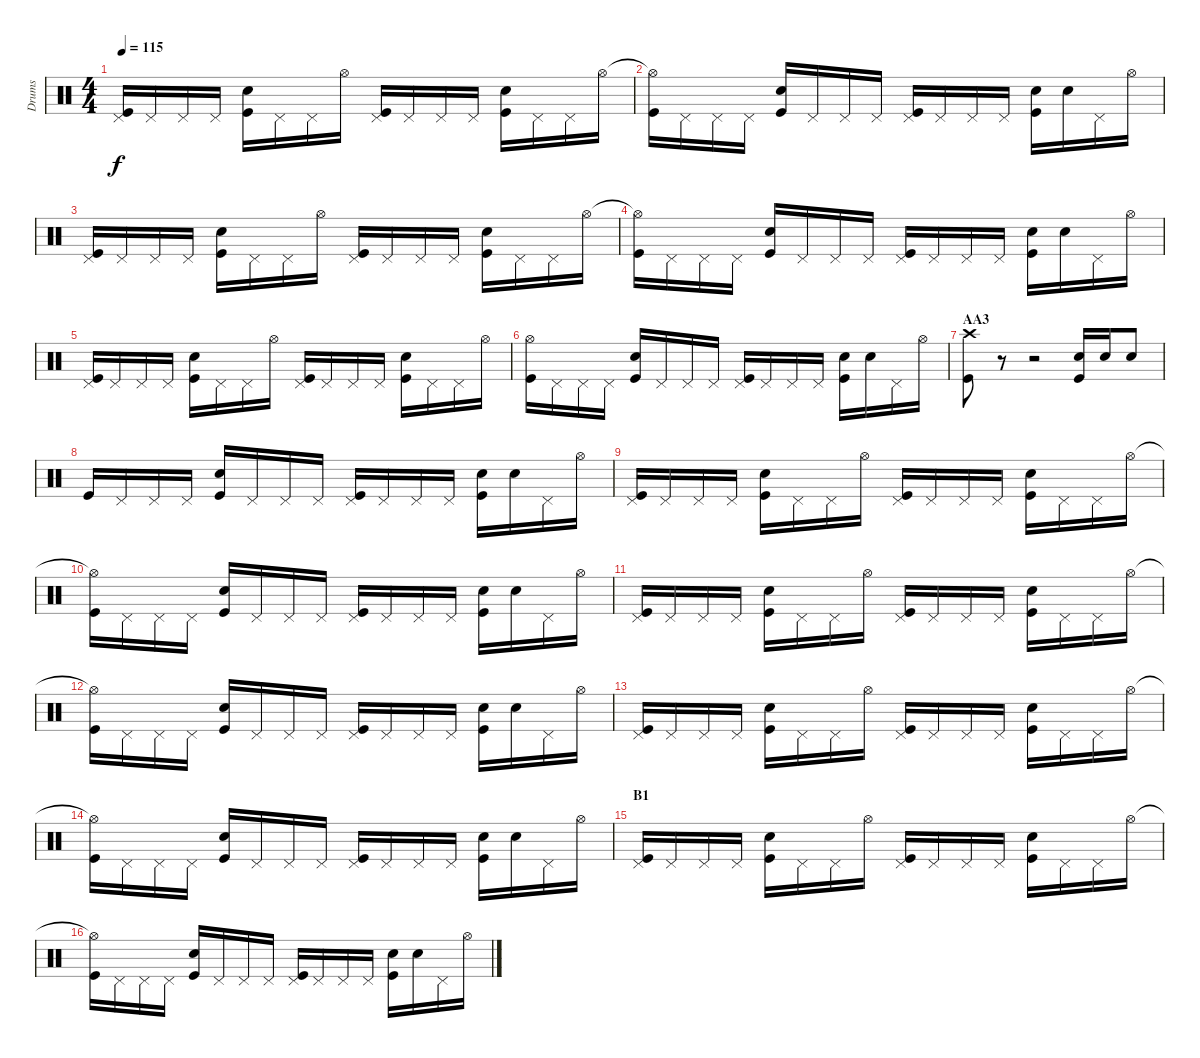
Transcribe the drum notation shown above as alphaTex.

\track ("Drums" "Drums") {instrument percussion}
\staff {score}
\articulation defaults
\ts (4 4)
\tempo 115
\clef neutral
\ks c
("Pedal Hi-Hat (hit)" "Kick (hit)").16{dy f} "Pedal Hi-Hat (hit)".16 "Pedal Hi-Hat (hit)".16 "Pedal Hi-Hat (hit)".16 ("Snare (hit) 2" "Kick (hit)").16 "Pedal Hi-Hat (hit)".16 "Pedal Hi-Hat (hit)".16 "Hi-Hat (open)".16 ("Pedal Hi-Hat (hit)" "Kick (hit)").16 "Pedal Hi-Hat (hit)".16 "Pedal Hi-Hat (hit)".16 "Pedal Hi-Hat (hit)".16 ("Snare (hit) 2" "Kick (hit)").16 "Pedal Hi-Hat (hit)".16 "Pedal Hi-Hat (hit)".16 "Hi-Hat (open)".16 |
("Hi-Hat (open)"{t} "Kick (hit)").16 "Pedal Hi-Hat (hit)".16 "Pedal Hi-Hat (hit)".16 "Pedal Hi-Hat (hit)".16 ("Snare (hit) 2" "Kick (hit)").16 "Pedal Hi-Hat (hit)".16 "Pedal Hi-Hat (hit)".16 "Pedal Hi-Hat (hit)".16 ("Pedal Hi-Hat (hit)" "Kick (hit)").16 "Pedal Hi-Hat (hit)".16 "Pedal Hi-Hat (hit)".16 "Pedal Hi-Hat (hit)".16 ("Snare (hit) 2" "Kick (hit)").16 "Snare (hit) 2".16 "Pedal Hi-Hat (hit)".16 "Hi-Hat (open)".16 |
("Pedal Hi-Hat (hit)" "Kick (hit)").16 "Pedal Hi-Hat (hit)".16 "Pedal Hi-Hat (hit)".16 "Pedal Hi-Hat (hit)".16 ("Snare (hit) 2" "Kick (hit)").16 "Pedal Hi-Hat (hit)".16 "Pedal Hi-Hat (hit)".16 "Hi-Hat (open)".16 ("Pedal Hi-Hat (hit)" "Kick (hit)").16 "Pedal Hi-Hat (hit)".16 "Pedal Hi-Hat (hit)".16 "Pedal Hi-Hat (hit)".16 ("Snare (hit) 2" "Kick (hit)").16 "Pedal Hi-Hat (hit)".16 "Pedal Hi-Hat (hit)".16 "Hi-Hat (open)".16 |
("Hi-Hat (open)"{t} "Kick (hit)").16 "Pedal Hi-Hat (hit)".16 "Pedal Hi-Hat (hit)".16 "Pedal Hi-Hat (hit)".16 ("Snare (hit) 2" "Kick (hit)").16 "Pedal Hi-Hat (hit)".16 "Pedal Hi-Hat (hit)".16 "Pedal Hi-Hat (hit)".16 ("Pedal Hi-Hat (hit)" "Kick (hit)").16 "Pedal Hi-Hat (hit)".16 "Pedal Hi-Hat (hit)".16 "Pedal Hi-Hat (hit)".16 ("Snare (hit) 2" "Kick (hit)").16 "Snare (hit) 2".16 "Pedal Hi-Hat (hit)".16 "Hi-Hat (open)".16 |
("Pedal Hi-Hat (hit)" "Kick (hit)").16 "Pedal Hi-Hat (hit)".16 "Pedal Hi-Hat (hit)".16 "Pedal Hi-Hat (hit)".16 ("Snare (hit) 2" "Kick (hit)").16 "Pedal Hi-Hat (hit)".16 "Pedal Hi-Hat (hit)".16 "Hi-Hat (open)".16 ("Pedal Hi-Hat (hit)" "Kick (hit)").16 "Pedal Hi-Hat (hit)".16 "Pedal Hi-Hat (hit)".16 "Pedal Hi-Hat (hit)".16 ("Snare (hit) 2" "Kick (hit)").16 "Pedal Hi-Hat (hit)".16 "Pedal Hi-Hat (hit)".16 "Hi-Hat (open)".16 |
("Hi-Hat (open)" "Kick (hit)").16 "Pedal Hi-Hat (hit)".16 "Pedal Hi-Hat (hit)".16 "Pedal Hi-Hat (hit)".16 ("Snare (hit) 2" "Kick (hit)").16 "Pedal Hi-Hat (hit)".16 "Pedal Hi-Hat (hit)".16 "Pedal Hi-Hat (hit)".16 ("Pedal Hi-Hat (hit)" "Kick (hit)").16 "Pedal Hi-Hat (hit)".16 "Pedal Hi-Hat (hit)".16 "Pedal Hi-Hat (hit)".16 ("Snare (hit) 2" "Kick (hit)").16 "Snare (hit) 2".16 "Pedal Hi-Hat (hit)".16 "Hi-Hat (open)".16 |
\section ("" "AA3")
("Crash high (hit)" "Kick (hit)").8 r.8 r.2 ("Snare (hit) 2" "Kick (hit)").16 "Snare (hit) 2".16 "Snare (hit) 2".8 |
"Kick (hit)".16 "Pedal Hi-Hat (hit)".16 "Pedal Hi-Hat (hit)".16 "Pedal Hi-Hat (hit)".16 ("Snare (hit) 2" "Kick (hit)").16 "Pedal Hi-Hat (hit)".16 "Pedal Hi-Hat (hit)".16 "Pedal Hi-Hat (hit)".16 ("Pedal Hi-Hat (hit)" "Kick (hit)").16 "Pedal Hi-Hat (hit)".16 "Pedal Hi-Hat (hit)".16 "Pedal Hi-Hat (hit)".16 ("Snare (hit) 2" "Kick (hit)").16 "Snare (hit) 2".16 "Pedal Hi-Hat (hit)".16 "Hi-Hat (open)".16 |
("Pedal Hi-Hat (hit)" "Kick (hit)").16 "Pedal Hi-Hat (hit)".16 "Pedal Hi-Hat (hit)".16 "Pedal Hi-Hat (hit)".16 ("Snare (hit) 2" "Kick (hit)").16 "Pedal Hi-Hat (hit)".16 "Pedal Hi-Hat (hit)".16 "Hi-Hat (open)".16 ("Pedal Hi-Hat (hit)" "Kick (hit)").16 "Pedal Hi-Hat (hit)".16 "Pedal Hi-Hat (hit)".16 "Pedal Hi-Hat (hit)".16 ("Snare (hit) 2" "Kick (hit)").16 "Pedal Hi-Hat (hit)".16 "Pedal Hi-Hat (hit)".16 "Hi-Hat (open)".16 |
("Hi-Hat (open)"{t} "Kick (hit)").16 "Pedal Hi-Hat (hit)".16 "Pedal Hi-Hat (hit)".16 "Pedal Hi-Hat (hit)".16 ("Snare (hit) 2" "Kick (hit)").16 "Pedal Hi-Hat (hit)".16 "Pedal Hi-Hat (hit)".16 "Pedal Hi-Hat (hit)".16 ("Pedal Hi-Hat (hit)" "Kick (hit)").16 "Pedal Hi-Hat (hit)".16 "Pedal Hi-Hat (hit)".16 "Pedal Hi-Hat (hit)".16 ("Snare (hit) 2" "Kick (hit)").16 "Snare (hit) 2".16 "Pedal Hi-Hat (hit)".16 "Hi-Hat (open)".16 |
("Pedal Hi-Hat (hit)" "Kick (hit)").16 "Pedal Hi-Hat (hit)".16 "Pedal Hi-Hat (hit)".16 "Pedal Hi-Hat (hit)".16 ("Snare (hit) 2" "Kick (hit)").16 "Pedal Hi-Hat (hit)".16 "Pedal Hi-Hat (hit)".16 "Hi-Hat (open)".16 ("Pedal Hi-Hat (hit)" "Kick (hit)").16 "Pedal Hi-Hat (hit)".16 "Pedal Hi-Hat (hit)".16 "Pedal Hi-Hat (hit)".16 ("Snare (hit) 2" "Kick (hit)").16 "Pedal Hi-Hat (hit)".16 "Pedal Hi-Hat (hit)".16 "Hi-Hat (open)".16 |
("Hi-Hat (open)"{t} "Kick (hit)").16 "Pedal Hi-Hat (hit)".16 "Pedal Hi-Hat (hit)".16 "Pedal Hi-Hat (hit)".16 ("Snare (hit) 2" "Kick (hit)").16 "Pedal Hi-Hat (hit)".16 "Pedal Hi-Hat (hit)".16 "Pedal Hi-Hat (hit)".16 ("Pedal Hi-Hat (hit)" "Kick (hit)").16 "Pedal Hi-Hat (hit)".16 "Pedal Hi-Hat (hit)".16 "Pedal Hi-Hat (hit)".16 ("Snare (hit) 2" "Kick (hit)").16 "Snare (hit) 2".16 "Pedal Hi-Hat (hit)".16 "Hi-Hat (open)".16 |
("Pedal Hi-Hat (hit)" "Kick (hit)").16 "Pedal Hi-Hat (hit)".16 "Pedal Hi-Hat (hit)".16 "Pedal Hi-Hat (hit)".16 ("Snare (hit) 2" "Kick (hit)").16 "Pedal Hi-Hat (hit)".16 "Pedal Hi-Hat (hit)".16 "Hi-Hat (open)".16 ("Pedal Hi-Hat (hit)" "Kick (hit)").16 "Pedal Hi-Hat (hit)".16 "Pedal Hi-Hat (hit)".16 "Pedal Hi-Hat (hit)".16 ("Snare (hit) 2" "Kick (hit)").16 "Pedal Hi-Hat (hit)".16 "Pedal Hi-Hat (hit)".16 "Hi-Hat (open)".16 |
("Hi-Hat (open)"{t} "Kick (hit)").16 "Pedal Hi-Hat (hit)".16 "Pedal Hi-Hat (hit)".16 "Pedal Hi-Hat (hit)".16 ("Snare (hit) 2" "Kick (hit)").16 "Pedal Hi-Hat (hit)".16 "Pedal Hi-Hat (hit)".16 "Pedal Hi-Hat (hit)".16 ("Pedal Hi-Hat (hit)" "Kick (hit)").16 "Pedal Hi-Hat (hit)".16 "Pedal Hi-Hat (hit)".16 "Pedal Hi-Hat (hit)".16 ("Snare (hit) 2" "Kick (hit)").16 "Snare (hit) 2".16 "Pedal Hi-Hat (hit)".16 "Hi-Hat (open)".16 |
\section ("" "B1")
("Pedal Hi-Hat (hit)" "Kick (hit)").16 "Pedal Hi-Hat (hit)".16 "Pedal Hi-Hat (hit)".16 "Pedal Hi-Hat (hit)".16 ("Snare (hit) 2" "Kick (hit)").16 "Pedal Hi-Hat (hit)".16 "Pedal Hi-Hat (hit)".16 "Hi-Hat (open)".16 ("Pedal Hi-Hat (hit)" "Kick (hit)").16 "Pedal Hi-Hat (hit)".16 "Pedal Hi-Hat (hit)".16 "Pedal Hi-Hat (hit)".16 ("Snare (hit) 2" "Kick (hit)").16 "Pedal Hi-Hat (hit)".16 "Pedal Hi-Hat (hit)".16 "Hi-Hat (open)".16 |
("Hi-Hat (open)"{t} "Kick (hit)").16 "Pedal Hi-Hat (hit)".16 "Pedal Hi-Hat (hit)".16 "Pedal Hi-Hat (hit)".16 ("Snare (hit) 2" "Kick (hit)").16 "Pedal Hi-Hat (hit)".16 "Pedal Hi-Hat (hit)".16 "Pedal Hi-Hat (hit)".16 ("Pedal Hi-Hat (hit)" "Kick (hit)").16 "Pedal Hi-Hat (hit)".16 "Pedal Hi-Hat (hit)".16 "Pedal Hi-Hat (hit)".16 ("Snare (hit) 2" "Kick (hit)").16 "Snare (hit) 2".16 "Pedal Hi-Hat (hit)".16 "Hi-Hat (open)".16
